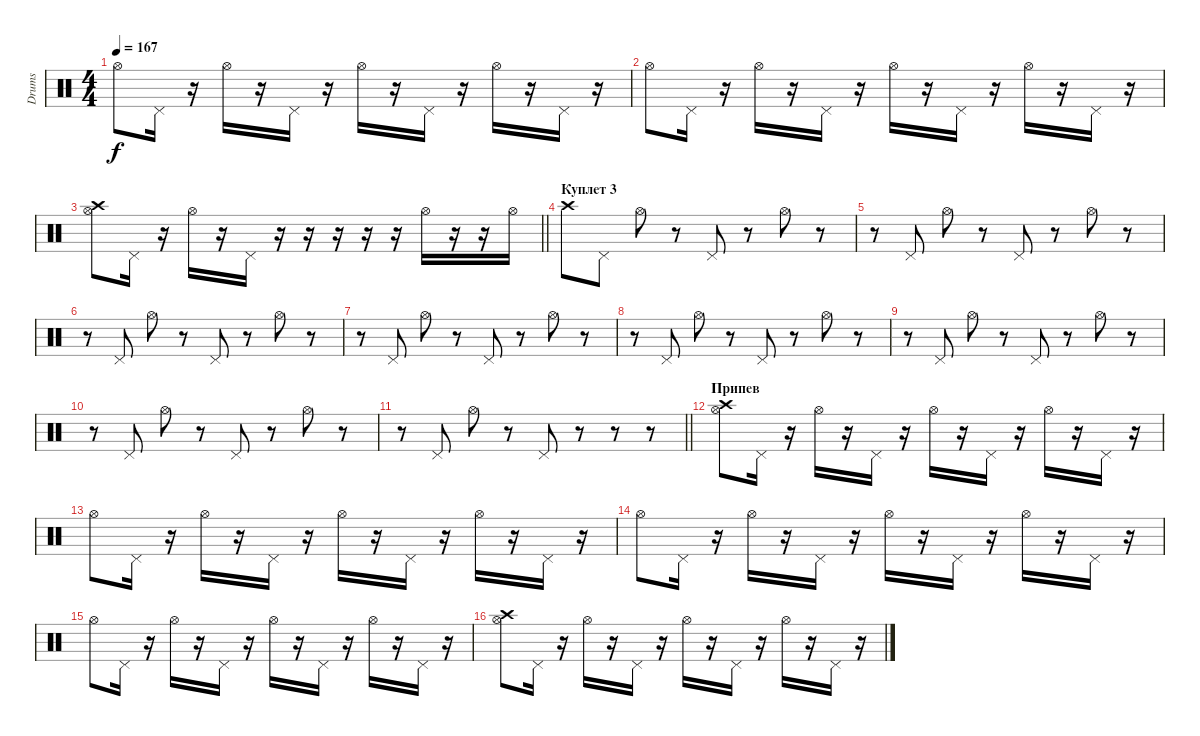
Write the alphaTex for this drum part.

\track ("Drums" "Drums") {instrument percussion}
\staff {score}
\articulation defaults
\ts (4 4)
\tempo 167
\clef neutral
\ks c "Hi-Hat (open)".8{dy f} "Pedal Hi-Hat (hit)".16
r.16 "Hi-Hat (open)".16 r.16 "Pedal Hi-Hat (hit)".16 r.16 "Hi-Hat (open)".16 r.16 "Pedal Hi-Hat (hit)".16 r.16 "Hi-Hat (open)".16 r.16 "Pedal Hi-Hat (hit)".16 r.16 |
"Hi-Hat (open)".8 "Pedal Hi-Hat (hit)".16 r.16 "Hi-Hat (open)".16 r.16 "Pedal Hi-Hat (hit)".16 r.16 "Hi-Hat (open)".16 r.16 "Pedal Hi-Hat (hit)".16 r.16 "Hi-Hat (open)".16 r.16 "Pedal Hi-Hat (hit)".16 r.16 |
\barLineRight lightlight
("Crash high (hit)" "Hi-Hat (open)").8 "Pedal Hi-Hat (hit)".16 r.16 "Hi-Hat (open)".16 r.16 "Pedal Hi-Hat (hit)".16 r.16 r.16 r.16 r.16 r.16 "Hi-Hat (open)".16 r.16 r.16 "Hi-Hat (open)".16 |
\section ("" "Куплет 3")
"Crash high (hit)".8 "Pedal Hi-Hat (hit)".8 "Hi-Hat (open)".8 r.8 "Pedal Hi-Hat (hit)".8 r.8 "Hi-Hat (open)".8 r.8 |
r.8 "Pedal Hi-Hat (hit)".8 "Hi-Hat (open)".8 r.8 "Pedal Hi-Hat (hit)".8 r.8 "Hi-Hat (open)".8 r.8 |
r.8 "Pedal Hi-Hat (hit)".8 "Hi-Hat (open)".8 r.8 "Pedal Hi-Hat (hit)".8 r.8 "Hi-Hat (open)".8 r.8 |
r.8 "Pedal Hi-Hat (hit)".8 "Hi-Hat (open)".8 r.8 "Pedal Hi-Hat (hit)".8 r.8 "Hi-Hat (open)".8 r.8 |
r.8 "Pedal Hi-Hat (hit)".8 "Hi-Hat (open)".8 r.8 "Pedal Hi-Hat (hit)".8 r.8 "Hi-Hat (open)".8 r.8 |
r.8 "Pedal Hi-Hat (hit)".8 "Hi-Hat (open)".8 r.8 "Pedal Hi-Hat (hit)".8 r.8 "Hi-Hat (open)".8 r.8 |
r.8 "Pedal Hi-Hat (hit)".8 "Hi-Hat (open)".8 r.8 "Pedal Hi-Hat (hit)".8 r.8 "Hi-Hat (open)".8 r.8 |
\barLineRight lightlight
r.8 "Pedal Hi-Hat (hit)".8 "Hi-Hat (open)".8 r.8 "Pedal Hi-Hat (hit)".8 r.8 r.8 r.8 |
\section ("" "Припев")
("Crash high (hit)" "Hi-Hat (open)").8 "Pedal Hi-Hat (hit)".16 r.16 "Hi-Hat (open)".16 r.16 "Pedal Hi-Hat (hit)".16 r.16 "Hi-Hat (open)".16 r.16 "Pedal Hi-Hat (hit)".16 r.16 "Hi-Hat (open)".16 r.16 "Pedal Hi-Hat (hit)".16 r.16 |
"Hi-Hat (open)".8 "Pedal Hi-Hat (hit)".16 r.16 "Hi-Hat (open)".16 r.16 "Pedal Hi-Hat (hit)".16 r.16 "Hi-Hat (open)".16 r.16 "Pedal Hi-Hat (hit)".16 r.16 "Hi-Hat (open)".16 r.16 "Pedal Hi-Hat (hit)".16 r.16 |
"Hi-Hat (open)".8 "Pedal Hi-Hat (hit)".16 r.16 "Hi-Hat (open)".16 r.16 "Pedal Hi-Hat (hit)".16 r.16 "Hi-Hat (open)".16 r.16 "Pedal Hi-Hat (hit)".16 r.16 "Hi-Hat (open)".16 r.16 "Pedal Hi-Hat (hit)".16 r.16 |
"Hi-Hat (open)".8 "Pedal Hi-Hat (hit)".16 r.16 "Hi-Hat (open)".16 r.16 "Pedal Hi-Hat (hit)".16 r.16 "Hi-Hat (open)".16 r.16 "Pedal Hi-Hat (hit)".16 r.16 "Hi-Hat (open)".16 r.16 "Pedal Hi-Hat (hit)".16 r.16 |
("Crash high (hit)" "Hi-Hat (open)").8 "Pedal Hi-Hat (hit)".16 r.16 "Hi-Hat (open)".16 r.16 "Pedal Hi-Hat (hit)".16 r.16 "Hi-Hat (open)".16 r.16 "Pedal Hi-Hat (hit)".16 r.16 "Hi-Hat (open)".16 r.16 "Pedal Hi-Hat (hit)".16 r.16
